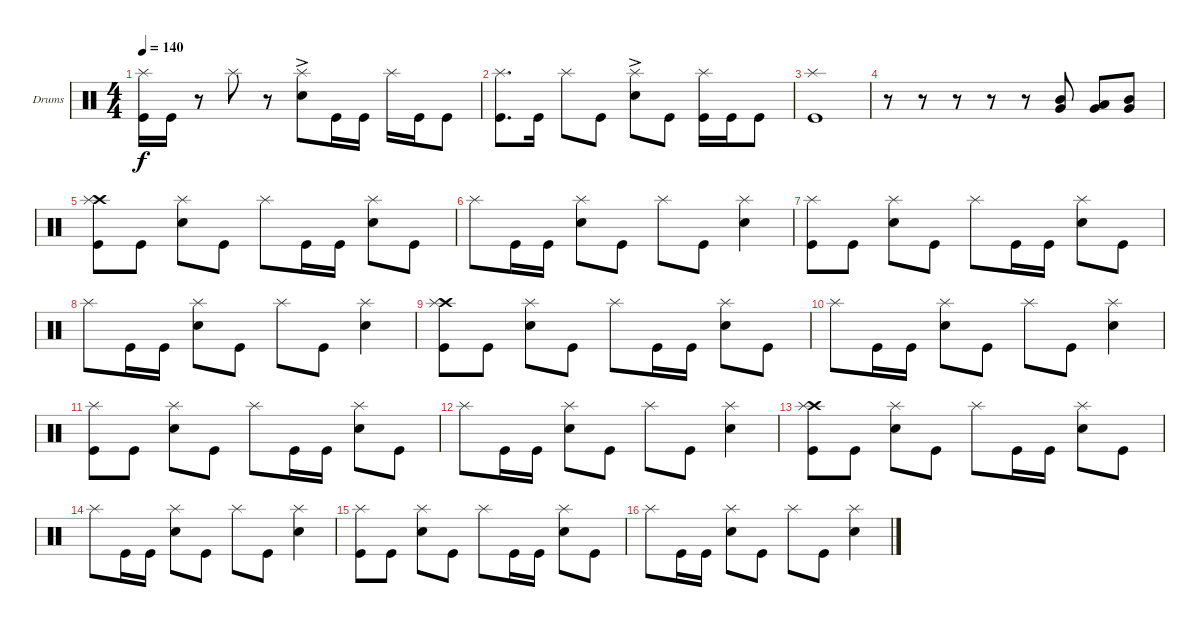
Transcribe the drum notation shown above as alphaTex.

\defaultSystemsLayout 4
\bracketExtendMode groupsimilarinstruments
\firstSystemTrackNameOrientation horizontal
\otherSystemsTrackNameOrientation horizontal
\track ("Drumkit" "Drums") {instrument percussion}
\staff {score}
\articulation defaults
\ts (4 4)
\tempo 140
\clef neutral
\ks c
("Kick (hit)" "Splash (hit)").16{dy f} "Kick (hit)".16 r.8 "Splash (hit)".8 r.8 ("Snare (hit) 2"{ac} "Splash (hit)").8 "Kick (hit)".16 "Kick (hit)".16 "Splash (hit)".16 "Kick (hit)".16 "Kick (hit)".8 |
("Kick (hit)" "Splash (hit)").8{d} "Kick (hit)".16 "Splash (hit)".8 "Kick (hit)".8 ("Snare (hit) 2"{ac} "Splash (hit)").8 "Kick (hit)".8 ("Kick (hit)" "Splash (hit)").16 "Kick (hit)".16 "Kick (hit)".8 |
("Kick (hit)" "Splash (hit)").1 |
r.8 r.8 r.8 r.8 r.8 ("Mid Tom (hit)" "Very Low Tom (hit)").8 ("Low Tom (hit)" "Very Low Tom (hit)").8 ("Very Low Tom (hit)" "Mid Tom (hit)").8 |
("Kick (hit)" "Crash high (hit)" "Splash (hit)").8 "Kick (hit)".8 ("Snare (hit) 2" "Splash (hit)").8 "Kick (hit)".8 "Splash (hit)".8 "Kick (hit)".16 "Kick (hit)".16 ("Snare (hit) 2" "Splash (hit)").8 "Kick (hit)".8 |
"Splash (hit)".8 "Kick (hit)".16 "Kick (hit)".16 ("Snare (hit) 2" "Splash (hit)").8 "Kick (hit)".8 "Splash (hit)".8 "Kick (hit)".8 ("Snare (hit) 2" "Splash (hit)").4 |
("Kick (hit)" "Splash (hit)").8 "Kick (hit)".8 ("Snare (hit) 2" "Splash (hit)").8 "Kick (hit)".8 "Splash (hit)".8 "Kick (hit)".16 "Kick (hit)".16 ("Snare (hit) 2" "Splash (hit)").8 "Kick (hit)".8 |
"Splash (hit)".8 "Kick (hit)".16 "Kick (hit)".16 ("Snare (hit) 2" "Splash (hit)").8 "Kick (hit)".8 "Splash (hit)".8 "Kick (hit)".8 ("Snare (hit) 2" "Splash (hit)").4 |
("Kick (hit)" "Crash high (hit)" "Splash (hit)").8 "Kick (hit)".8 ("Snare (hit) 2" "Splash (hit)").8 "Kick (hit)".8 "Splash (hit)".8 "Kick (hit)".16 "Kick (hit)".16 ("Snare (hit) 2" "Splash (hit)").8 "Kick (hit)".8 |
"Splash (hit)".8 "Kick (hit)".16 "Kick (hit)".16 ("Snare (hit) 2" "Splash (hit)").8 "Kick (hit)".8 "Splash (hit)".8 "Kick (hit)".8 ("Snare (hit) 2" "Splash (hit)").4 |
("Kick (hit)" "Splash (hit)").8 "Kick (hit)".8 ("Snare (hit) 2" "Splash (hit)").8 "Kick (hit)".8 "Splash (hit)".8 "Kick (hit)".16 "Kick (hit)".16 ("Snare (hit) 2" "Splash (hit)").8 "Kick (hit)".8 |
"Splash (hit)".8 "Kick (hit)".16 "Kick (hit)".16 ("Snare (hit) 2" "Splash (hit)").8 "Kick (hit)".8 "Splash (hit)".8 "Kick (hit)".8 ("Snare (hit) 2" "Splash (hit)").4 |
("Kick (hit)" "Crash high (hit)" "Splash (hit)").8 "Kick (hit)".8 ("Snare (hit) 2" "Splash (hit)").8 "Kick (hit)".8 "Splash (hit)".8 "Kick (hit)".16 "Kick (hit)".16 ("Snare (hit) 2" "Splash (hit)").8 "Kick (hit)".8 |
"Splash (hit)".8 "Kick (hit)".16 "Kick (hit)".16 ("Snare (hit) 2" "Splash (hit)").8 "Kick (hit)".8 "Splash (hit)".8 "Kick (hit)".8 ("Snare (hit) 2" "Splash (hit)").4 |
("Kick (hit)" "Splash (hit)").8 "Kick (hit)".8 ("Snare (hit) 2" "Splash (hit)").8 "Kick (hit)".8 "Splash (hit)".8 "Kick (hit)".16 "Kick (hit)".16 ("Snare (hit) 2" "Splash (hit)").8 "Kick (hit)".8 |
"Splash (hit)".8 "Kick (hit)".16 "Kick (hit)".16 ("Snare (hit) 2" "Splash (hit)").8 "Kick (hit)".8 "Splash (hit)".8 "Kick (hit)".8 ("Snare (hit) 2" "Splash (hit)").4
